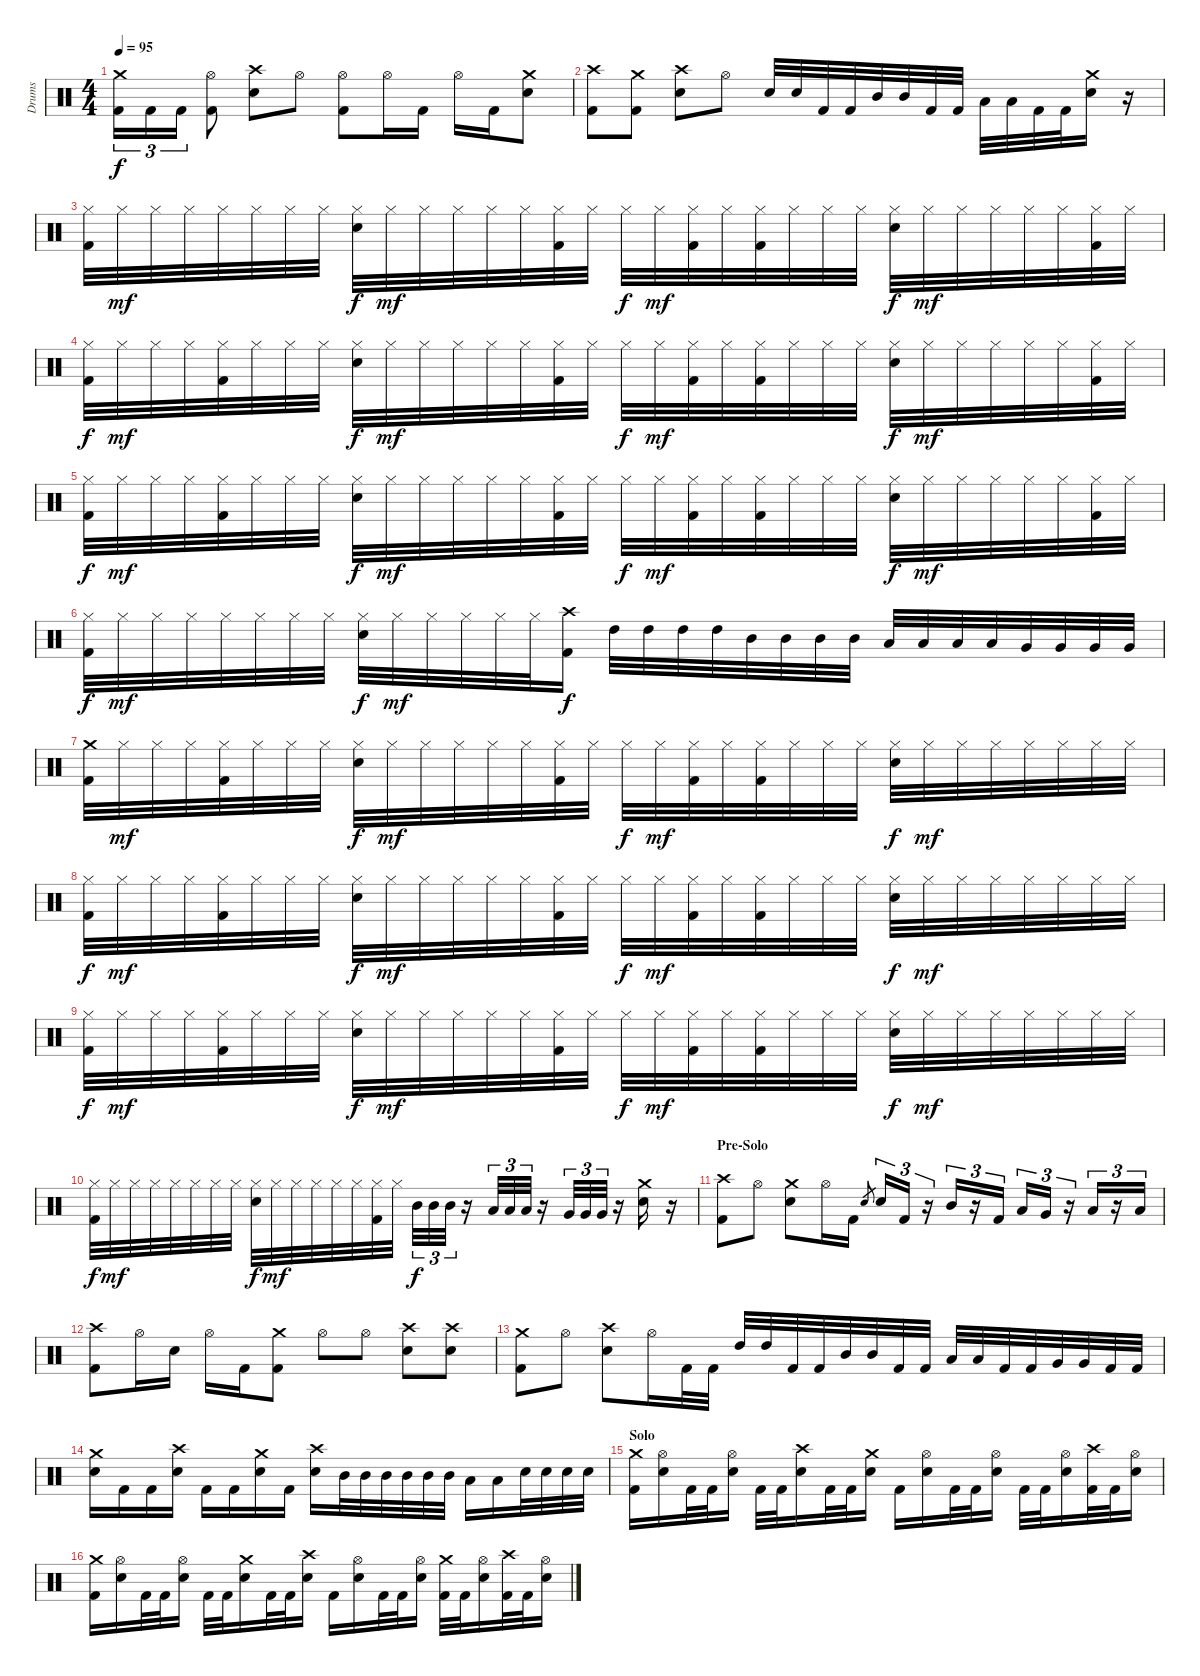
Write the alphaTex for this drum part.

\track ("Drums" "Drums") {instrument percussion}
\staff {score}
\articulation defaults
\ts (4 4)
\tempo 95
\clef neutral
\ks c
("Crash medium (hit)" "Kick (hit) 2").16{tu (3 2) dy f} "Kick (hit) 2".16{tu (3 2)} "Kick (hit) 2".16{tu (3 2)} ("Hi-Hat (open)" "Kick (hit) 2").8 ("Crash high (hit)" "Snare (hit) 2").8 "Hi-Hat (open)".8 ("Hi-Hat (open)" "Kick (hit) 2").8 "Hi-Hat (open)".16 "Kick (hit) 2".16 "Hi-Hat (open)".16 "Kick (hit) 2".16 ("Crash medium (hit)" "Snare (hit) 2").8 |
("Crash high (hit)" "Kick (hit) 2").8 ("Crash medium (hit)" "Kick (hit) 2").8 ("Crash high (hit)" "Snare (hit) 2").8 "Hi-Hat (open)".8 "Snare (hit) 2".32 "Snare (hit) 2".32 "Kick (hit) 2".32 "Kick (hit) 2".32 "Mid Tom (hit)".32 "Mid Tom (hit)".32 "Kick (hit) 2".32 "Kick (hit) 2".32 "Low Tom (hit)".32 "Low Tom (hit)".32 "Kick (hit) 2".32 "Kick (hit) 2".32 ("Crash medium (hit)" "Snare (hit) 2").16 r.16 |
("Hi-Hat (closed)" "Kick (hit) 2").32 "Hi-Hat (closed)".32{dy mf} "Hi-Hat (closed)".32 "Hi-Hat (closed)".32 "Hi-Hat (closed)".32 "Hi-Hat (closed)".32 "Hi-Hat (closed)".32 "Hi-Hat (closed)".32 ("Hi-Hat (closed)" "Snare (hit) 2").32{dy f} "Hi-Hat (closed)".32{dy mf} "Hi-Hat (closed)".32 "Hi-Hat (closed)".32 "Hi-Hat (closed)".32 "Hi-Hat (closed)".32 ("Hi-Hat (closed)" "Kick (hit) 2").32 "Hi-Hat (closed)".32 "Hi-Hat (closed)".32{dy f} "Hi-Hat (closed)".32{dy mf} ("Hi-Hat (closed)" "Kick (hit) 2").32 "Hi-Hat (closed)".32 ("Hi-Hat (closed)" "Kick (hit) 2").32 "Hi-Hat (closed)".32 "Hi-Hat (closed)".32 "Hi-Hat (closed)".32 ("Hi-Hat (closed)" "Snare (hit) 2").32{dy f} "Hi-Hat (closed)".32{dy mf} "Hi-Hat (closed)".32 "Hi-Hat (closed)".32 "Hi-Hat (closed)".32 "Hi-Hat (closed)".32 ("Hi-Hat (closed)" "Kick (hit) 2").32 "Hi-Hat (closed)".32 |
("Hi-Hat (closed)" "Kick (hit) 2").32{dy f} "Hi-Hat (closed)".32{dy mf} "Hi-Hat (closed)".32 "Hi-Hat (closed)".32 ("Hi-Hat (closed)" "Kick (hit) 2").32 "Hi-Hat (closed)".32 "Hi-Hat (closed)".32 "Hi-Hat (closed)".32 ("Hi-Hat (closed)" "Snare (hit) 2").32{dy f} "Hi-Hat (closed)".32{dy mf} "Hi-Hat (closed)".32 "Hi-Hat (closed)".32 "Hi-Hat (closed)".32 "Hi-Hat (closed)".32 ("Hi-Hat (closed)" "Kick (hit) 2").32 "Hi-Hat (closed)".32 "Hi-Hat (closed)".32{dy f} "Hi-Hat (closed)".32{dy mf} ("Hi-Hat (closed)" "Kick (hit) 2").32 "Hi-Hat (closed)".32 ("Hi-Hat (closed)" "Kick (hit) 2").32 "Hi-Hat (closed)".32 "Hi-Hat (closed)".32 "Hi-Hat (closed)".32 ("Hi-Hat (closed)" "Snare (hit) 2").32{dy f} "Hi-Hat (closed)".32{dy mf} "Hi-Hat (closed)".32 "Hi-Hat (closed)".32 "Hi-Hat (closed)".32 "Hi-Hat (closed)".32 ("Hi-Hat (closed)" "Kick (hit) 2").32 "Hi-Hat (closed)".32 |
("Hi-Hat (closed)" "Kick (hit) 2").32{dy f} "Hi-Hat (closed)".32{dy mf} "Hi-Hat (closed)".32 "Hi-Hat (closed)".32 ("Hi-Hat (closed)" "Kick (hit) 2").32 "Hi-Hat (closed)".32 "Hi-Hat (closed)".32 "Hi-Hat (closed)".32 ("Hi-Hat (closed)" "Snare (hit) 2").32{dy f} "Hi-Hat (closed)".32{dy mf} "Hi-Hat (closed)".32 "Hi-Hat (closed)".32 "Hi-Hat (closed)".32 "Hi-Hat (closed)".32 ("Hi-Hat (closed)" "Kick (hit) 2").32 "Hi-Hat (closed)".32 "Hi-Hat (closed)".32{dy f} "Hi-Hat (closed)".32{dy mf} ("Hi-Hat (closed)" "Kick (hit) 2").32 "Hi-Hat (closed)".32 ("Hi-Hat (closed)" "Kick (hit) 2").32 "Hi-Hat (closed)".32 "Hi-Hat (closed)".32 "Hi-Hat (closed)".32 ("Hi-Hat (closed)" "Snare (hit) 2").32{dy f} "Hi-Hat (closed)".32{dy mf} "Hi-Hat (closed)".32 "Hi-Hat (closed)".32 "Hi-Hat (closed)".32 "Hi-Hat (closed)".32 ("Hi-Hat (closed)" "Kick (hit) 2").32 "Hi-Hat (closed)".32 |
("Hi-Hat (closed)" "Kick (hit) 2").32{dy f} "Hi-Hat (closed)".32{dy mf} "Hi-Hat (closed)".32 "Hi-Hat (closed)".32 "Hi-Hat (closed)".32 "Hi-Hat (closed)".32 "Hi-Hat (closed)".32 "Hi-Hat (closed)".32 ("Hi-Hat (closed)" "Snare (hit) 2").32{dy f} "Hi-Hat (closed)".32{dy mf} "Hi-Hat (closed)".32 "Hi-Hat (closed)".32 "Hi-Hat (closed)".32 "Hi-Hat (closed)".32 ("Crash high (hit)" "Kick (hit) 2").16{dy f} "High Tom (hit)".32 "High Tom (hit)".32 "High Tom (hit)".32 "High Tom (hit)".32 "Mid Tom (hit)".32 "Mid Tom (hit)".32 "Mid Tom (hit)".32 "Mid Tom (hit)".32 "Low Tom (hit)".32 "Low Tom (hit)".32 "Low Tom (hit)".32 "Low Tom (hit)".32 "Very Low Tom (hit)".32 "Very Low Tom (hit)".32 "Very Low Tom (hit)".32 "Very Low Tom (hit)".32 |
("Crash medium (hit)" "Kick (hit) 2").32 "Hi-Hat (closed)".32{dy mf} "Hi-Hat (closed)".32 "Hi-Hat (closed)".32 ("Hi-Hat (closed)" "Kick (hit) 2").32 "Hi-Hat (closed)".32 "Hi-Hat (closed)".32 "Hi-Hat (closed)".32 ("Hi-Hat (closed)" "Snare (hit) 2").32{dy f} "Hi-Hat (closed)".32{dy mf} "Hi-Hat (closed)".32 "Hi-Hat (closed)".32 "Hi-Hat (closed)".32 "Hi-Hat (closed)".32 ("Hi-Hat (closed)" "Kick (hit) 2").32 "Hi-Hat (closed)".32 "Hi-Hat (closed)".32{dy f} "Hi-Hat (closed)".32{dy mf} ("Hi-Hat (closed)" "Kick (hit) 2").32 "Hi-Hat (closed)".32 ("Hi-Hat (closed)" "Kick (hit) 2").32 "Hi-Hat (closed)".32 "Hi-Hat (closed)".32 "Hi-Hat (closed)".32 ("Hi-Hat (closed)" "Snare (hit) 2").32{dy f} "Hi-Hat (closed)".32{dy mf} "Hi-Hat (closed)".32 "Hi-Hat (closed)".32 "Hi-Hat (closed)".32 "Hi-Hat (closed)".32 "Hi-Hat (closed)".32 "Hi-Hat (closed)".32 |
("Hi-Hat (closed)" "Kick (hit) 2").32{dy f} "Hi-Hat (closed)".32{dy mf} "Hi-Hat (closed)".32 "Hi-Hat (closed)".32 ("Hi-Hat (closed)" "Kick (hit) 2").32 "Hi-Hat (closed)".32 "Hi-Hat (closed)".32 "Hi-Hat (closed)".32 ("Hi-Hat (closed)" "Snare (hit) 2").32{dy f} "Hi-Hat (closed)".32{dy mf} "Hi-Hat (closed)".32 "Hi-Hat (closed)".32 "Hi-Hat (closed)".32 "Hi-Hat (closed)".32 ("Hi-Hat (closed)" "Kick (hit) 2").32 "Hi-Hat (closed)".32 "Hi-Hat (closed)".32{dy f} "Hi-Hat (closed)".32{dy mf} ("Hi-Hat (closed)" "Kick (hit) 2").32 "Hi-Hat (closed)".32 ("Hi-Hat (closed)" "Kick (hit) 2").32 "Hi-Hat (closed)".32 "Hi-Hat (closed)".32 "Hi-Hat (closed)".32 ("Hi-Hat (closed)" "Snare (hit) 2").32{dy f} "Hi-Hat (closed)".32{dy mf} "Hi-Hat (closed)".32 "Hi-Hat (closed)".32 "Hi-Hat (closed)".32 "Hi-Hat (closed)".32 "Hi-Hat (closed)".32 "Hi-Hat (closed)".32 |
("Hi-Hat (closed)" "Kick (hit) 2").32{dy f} "Hi-Hat (closed)".32{dy mf} "Hi-Hat (closed)".32 "Hi-Hat (closed)".32 ("Hi-Hat (closed)" "Kick (hit) 2").32 "Hi-Hat (closed)".32 "Hi-Hat (closed)".32 "Hi-Hat (closed)".32 ("Hi-Hat (closed)" "Snare (hit) 2").32{dy f} "Hi-Hat (closed)".32{dy mf} "Hi-Hat (closed)".32 "Hi-Hat (closed)".32 "Hi-Hat (closed)".32 "Hi-Hat (closed)".32 ("Hi-Hat (closed)" "Kick (hit) 2").32 "Hi-Hat (closed)".32 "Hi-Hat (closed)".32{dy f} "Hi-Hat (closed)".32{dy mf} ("Hi-Hat (closed)" "Kick (hit) 2").32 "Hi-Hat (closed)".32 ("Hi-Hat (closed)" "Kick (hit) 2").32 "Hi-Hat (closed)".32 "Hi-Hat (closed)".32 "Hi-Hat (closed)".32 ("Hi-Hat (closed)" "Snare (hit) 2").32{dy f} "Hi-Hat (closed)".32{dy mf} "Hi-Hat (closed)".32 "Hi-Hat (closed)".32 "Hi-Hat (closed)".32 "Hi-Hat (closed)".32 "Hi-Hat (closed)".32 "Hi-Hat (closed)".32 |
("Hi-Hat (closed)" "Kick (hit) 2").32{dy f} "Hi-Hat (closed)".32{dy mf} "Hi-Hat (closed)".32 "Hi-Hat (closed)".32 "Hi-Hat (closed)".32 "Hi-Hat (closed)".32 "Hi-Hat (closed)".32 "Hi-Hat (closed)".32 ("Hi-Hat (closed)" "Snare (hit) 2").32{dy f} "Hi-Hat (closed)".32{dy mf} "Hi-Hat (closed)".32 "Hi-Hat (closed)".32 "Hi-Hat (closed)".32 "Hi-Hat (closed)".32 ("Hi-Hat (closed)" "Kick (hit) 2").32 "Hi-Hat (closed)".32 "Mid Tom (hit)".32{tu (3 2) dy f} "Mid Tom (hit)".32{tu (3 2)} "Mid Tom (hit)".32{tu (3 2)} r.16 "Low Tom (hit)".32{tu (3 2)} "Low Tom (hit)".32{tu (3 2)} "Low Tom (hit)".32{tu (3 2)} r.16 "Very Low Tom (hit)".32{tu (3 2)} "Very Low Tom (hit)".32{tu (3 2)} "Very Low Tom (hit)".32{tu (3 2)} r.16 ("Crash medium (hit)" "Snare (hit) 2").16 r.16 |
\section ("" "Pre-Solo")
("Crash high (hit)" "Kick (hit) 2").8 "Hi-Hat (open)".8 ("Crash medium (hit)" "Snare (hit) 2").8 "Hi-Hat (open)".16 "Kick (hit) 2".16 "Snare (hit) 2".8{gr} "Snare (hit) 2".16{tu (3 2)} "Kick (hit) 2".16{tu (3 2)} r.16{tu (3 2)} "Mid Tom (hit)".16{tu (3 2)} r.16{tu (3 2)} "Kick (hit) 2".16{tu (3 2)} "Low Tom (hit)".16{tu (3 2)} "Very Low Tom (hit)".16{tu (3 2)} r.16{tu (3 2)} "Low Floor Tom (hit)".16{tu (3 2)} r.16{tu (3 2)} "Low Floor Tom (hit)".16{tu (3 2)} |
("Crash high (hit)" "Kick (hit) 2").8 "Hi-Hat (open)".16 "Snare (hit) 2".16 "Hi-Hat (open)".16 "Kick (hit) 2".16 ("Crash medium (hit)" "Kick (hit) 2").8 "Hi-Hat (open)".8 "Hi-Hat (open)".8 ("Crash high (hit)" "Snare (hit) 2").8 ("Crash high (hit)" "Snare (hit) 2").8 |
("Crash medium (hit)" "Kick (hit) 2").8 "Hi-Hat (open)".8 ("Crash high (hit)" "Snare (hit) 2").8 "Hi-Hat (open)".16 "Kick (hit) 2".32 "Kick (hit) 2".32 "High Tom (hit)".32 "High Tom (hit)".32 "Kick (hit) 2".32 "Kick (hit) 2".32 "Mid Tom (hit)".32 "Mid Tom (hit)".32 "Kick (hit) 2".32 "Kick (hit) 2".32 "Low Tom (hit)".32 "Low Tom (hit)".32 "Kick (hit) 2".32 "Kick (hit) 2".32 "Very Low Tom (hit)".32 "Very Low Tom (hit)".32 "Kick (hit) 2".32 "Kick (hit) 2".32 |
("Crash medium (hit)" "Snare (hit) 2").16 "Kick (hit) 2".16 "Kick (hit) 2".16 ("Crash high (hit)" "Snare (hit) 2").16 "Kick (hit) 2".16 "Kick (hit) 2".16 ("Crash medium (hit)" "Snare (hit) 2").16 "Kick (hit) 2".16 ("Crash high (hit)" "Snare (hit) 2").16 "Mid Tom (hit)".32 "Mid Tom (hit)".32 "Mid Tom (hit)".32 "Mid Tom (hit)".32 "Mid Tom (hit)".32 "Mid Tom (hit)".32 "Low Tom (hit)".16 "Low Tom (hit)".16 "Snare (hit) 2".32 "Snare (hit) 2".32 "Snare (hit) 2".32 "Snare (hit) 2".32 |
\section ("" "Solo")
("Crash medium (hit)" "Kick (hit) 2").16 ("Hi-Hat (open)" "Snare (hit) 2").16 "Kick (hit) 2".32 "Kick (hit) 2".32 ("Hi-Hat (open)" "Snare (hit) 2").16 "Kick (hit) 2".32 "Kick (hit) 2".32 ("Crash high (hit)" "Snare (hit) 2").16 "Kick (hit) 2".32 "Kick (hit) 2".32 ("Crash medium (hit)" "Snare (hit) 2").16 "Kick (hit) 2".16 ("Hi-Hat (open)" "Snare (hit) 2").16 "Kick (hit) 2".32 "Kick (hit) 2".32 ("Hi-Hat (open)" "Snare (hit) 2").16 "Kick (hit) 2".32 "Kick (hit) 2".32 ("Hi-Hat (open)" "Snare (hit) 2").16 ("Crash high (hit)" "Kick (hit) 2").32 "Kick (hit) 2".32 ("Hi-Hat (open)" "Snare (hit) 2").16 |
("Crash medium (hit)" "Kick (hit) 2").16 ("Hi-Hat (open)" "Snare (hit) 2").16 "Kick (hit) 2".32 "Kick (hit) 2".32 ("Hi-Hat (open)" "Snare (hit) 2").16 "Kick (hit) 2".32 "Kick (hit) 2".32 ("Crash medium (hit)" "Snare (hit) 2").16 "Kick (hit) 2".32 "Kick (hit) 2".32 ("Crash high (hit)" "Snare (hit) 2").16 "Kick (hit) 2".16 ("Hi-Hat (open)" "Snare (hit) 2").16 "Kick (hit) 2".32 "Kick (hit) 2".32 ("Hi-Hat (open)" "Snare (hit) 2").16 ("Crash medium (hit)" "Kick (hit) 2").32 "Kick (hit) 2".32 ("Hi-Hat (open)" "Snare (hit) 2").16 ("Crash high (hit)" "Kick (hit) 2").32 "Kick (hit) 2".32 ("Hi-Hat (open)" "Snare (hit) 2").16
